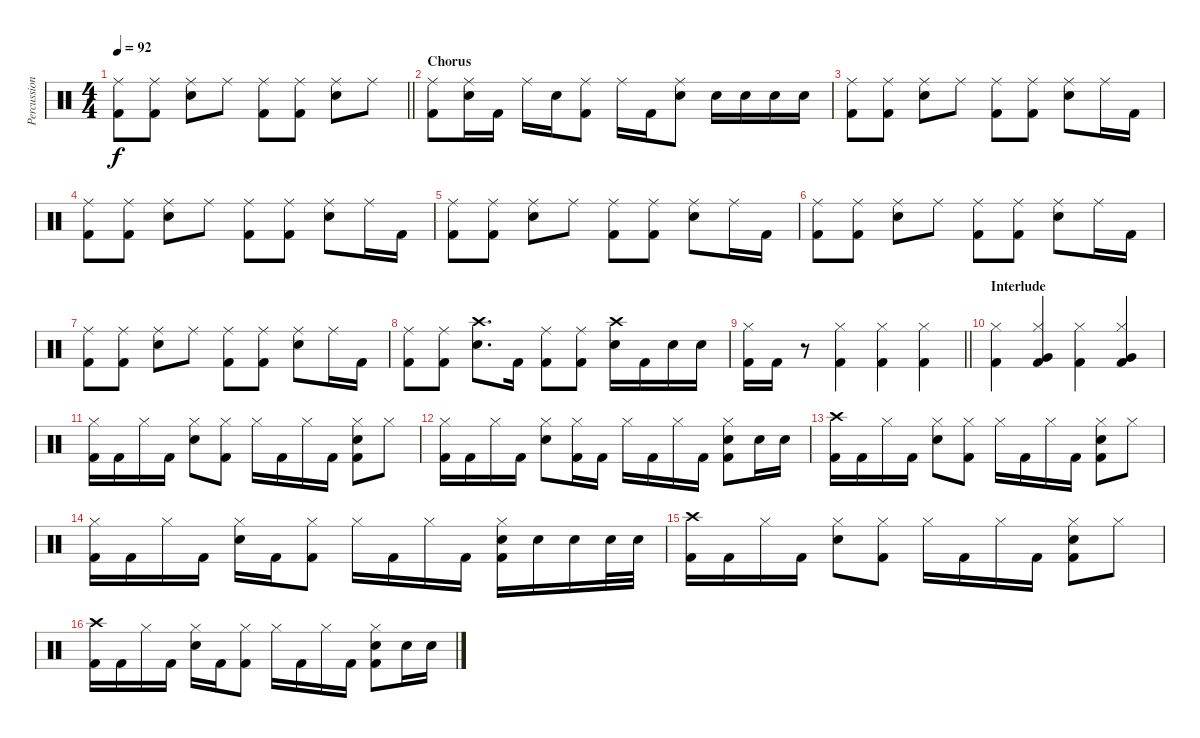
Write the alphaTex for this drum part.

\track ("Percussion" "Percussion") {instrument percussion}
\staff {score}
\articulation defaults
\ts (4 4)
\tempo 92
\clef neutral
\barLineRight lightlight
\ks c
("Ride (middle)" "Kick (hit) 2").8{dy f} ("Ride (middle)" "Kick (hit) 2").8 ("Ride (middle)" "Electric Snare (hit)").8 "Ride (middle)".8 ("Ride (middle)" "Kick (hit) 2").8 ("Ride (middle)" "Kick (hit) 2").8 ("Ride (middle)" "Electric Snare (hit)").8 "Ride (middle)".8 |
\section ("" "Chorus")
("Ride (middle)" "Kick (hit) 2").8 ("Ride (middle)" "Electric Snare (hit)").16 "Kick (hit) 2".16 "Ride (middle)".16 "Electric Snare (hit)".16 ("Ride (middle)" "Kick (hit) 2").8 "Ride (middle)".16 "Kick (hit) 2".16 ("Ride (middle)" "Electric Snare (hit)").8 "Electric Snare (hit)".16 "Electric Snare (hit)".16 "Electric Snare (hit)".16 "Electric Snare (hit)".16 |
("Ride (middle)" "Kick (hit) 2").8 ("Ride (middle)" "Kick (hit) 2").8 ("Ride (middle)" "Electric Snare (hit)").8 "Ride (middle)".8 ("Ride (middle)" "Kick (hit) 2").8 ("Ride (middle)" "Kick (hit) 2").8 ("Ride (middle)" "Electric Snare (hit)").8 "Ride (middle)".16 "Kick (hit) 2".16 |
("Ride (middle)" "Kick (hit) 2").8 ("Ride (middle)" "Kick (hit) 2").8 ("Ride (middle)" "Electric Snare (hit)").8 "Ride (middle)".8 ("Ride (middle)" "Kick (hit) 2").8 ("Ride (middle)" "Kick (hit) 2").8 ("Ride (middle)" "Electric Snare (hit)").8 "Ride (middle)".16 "Kick (hit) 2".16 |
("Ride (middle)" "Kick (hit) 2").8 ("Ride (middle)" "Kick (hit) 2").8 ("Ride (middle)" "Electric Snare (hit)").8 "Ride (middle)".8 ("Ride (middle)" "Kick (hit) 2").8 ("Ride (middle)" "Kick (hit) 2").8 ("Ride (middle)" "Electric Snare (hit)").8 "Ride (middle)".16 "Kick (hit) 2".16 |
("Ride (middle)" "Kick (hit) 2").8 ("Ride (middle)" "Kick (hit) 2").8 ("Ride (middle)" "Electric Snare (hit)").8 "Ride (middle)".8 ("Ride (middle)" "Kick (hit) 2").8 ("Ride (middle)" "Kick (hit) 2").8 ("Ride (middle)" "Electric Snare (hit)").8 "Ride (middle)".16 "Kick (hit) 2".16 |
("Ride (middle)" "Kick (hit) 2").8 ("Ride (middle)" "Kick (hit) 2").8 ("Ride (middle)" "Electric Snare (hit)").8 "Ride (middle)".8 ("Ride (middle)" "Kick (hit) 2").8 ("Ride (middle)" "Kick (hit) 2").8 ("Ride (middle)" "Electric Snare (hit)").8 "Ride (middle)".16 "Kick (hit) 2".16 |
("Ride (middle)" "Kick (hit) 2").8 ("Ride (middle)" "Kick (hit) 2").8 ("Crash high (hit)" "Electric Snare (hit)").8{d} "Kick (hit) 2".16 ("Ride (middle)" "Kick (hit) 2").8 ("Ride (middle)" "Kick (hit) 2").8 ("Crash high (hit)" "Electric Snare (hit)").16 "Kick (hit) 2".16 "Electric Snare (hit)".16 "Electric Snare (hit)".16 |
\barLineRight lightlight
("Hi-Hat (closed)" "Kick (hit) 2").16 "Kick (hit) 2".16 r.8 ("Hi-Hat (closed)" "Kick (hit) 2").4 ("Hi-Hat (closed)" "Kick (hit) 2").4 ("Hi-Hat (closed)" "Kick (hit) 2").4 |
\section ("" "Interlude")
("Hi-Hat (closed)" "Kick (hit) 2").4 ("Hi-Hat (closed)" "Very Low Tom (hit)" "Kick (hit) 2").4 ("Hi-Hat (closed)" "Kick (hit) 2").4 ("Hi-Hat (closed)" "Very Low Tom (hit)" "Kick (hit) 2").4 |
("Hi-Hat (closed)" "Kick (hit) 2").16 "Kick (hit) 2".16 "Hi-Hat (closed)".16 "Kick (hit) 2".16 ("Hi-Hat (closed)" "Electric Snare (hit)").8 ("Hi-Hat (closed)" "Kick (hit) 2").8 "Hi-Hat (closed)".16 "Kick (hit) 2".16 "Hi-Hat (closed)".16 "Kick (hit) 2".16 ("Hi-Hat (closed)" "Electric Snare (hit)" "Kick (hit) 2").8 "Hi-Hat (closed)".8 |
("Hi-Hat (closed)" "Kick (hit) 2").16 "Kick (hit) 2".16 "Hi-Hat (closed)".16 "Kick (hit) 2".16 ("Hi-Hat (closed)" "Electric Snare (hit)").8 ("Hi-Hat (closed)" "Kick (hit) 2").16 "Kick (hit) 2".16 "Hi-Hat (closed)".16 "Kick (hit) 2".16 "Hi-Hat (closed)".16 "Kick (hit) 2".16 ("Hi-Hat (closed)" "Electric Snare (hit)" "Kick (hit) 2").8 "Electric Snare (hit)".16 "Electric Snare (hit)".16 |
("Crash high (hit)" "Kick (hit) 2").16 "Kick (hit) 2".16 "Hi-Hat (closed)".16 "Kick (hit) 2".16 ("Hi-Hat (closed)" "Electric Snare (hit)").8 ("Hi-Hat (closed)" "Kick (hit) 2").8 "Hi-Hat (closed)".16 "Kick (hit) 2".16 "Hi-Hat (closed)".16 "Kick (hit) 2".16 ("Hi-Hat (closed)" "Electric Snare (hit)" "Kick (hit) 2").8 "Hi-Hat (closed)".8 |
("Hi-Hat (closed)" "Kick (hit) 2").16 "Kick (hit) 2".16 "Hi-Hat (closed)".16 "Kick (hit) 2".16 ("Hi-Hat (closed)" "Electric Snare (hit)").16 "Kick (hit) 2".16 ("Hi-Hat (closed)" "Kick (hit) 2").8 "Hi-Hat (closed)".16 "Kick (hit) 2".16 "Hi-Hat (closed)".16 "Kick (hit) 2".16 ("Hi-Hat (closed)" "Electric Snare (hit)" "Kick (hit) 2").16 "Electric Snare (hit)".16 "Electric Snare (hit)".16 "Electric Snare (hit)".32 "Electric Snare (hit)".32 |
("Crash high (hit)" "Kick (hit) 2").16 "Kick (hit) 2".16 "Hi-Hat (closed)".16 "Kick (hit) 2".16 ("Hi-Hat (closed)" "Electric Snare (hit)").8 ("Hi-Hat (closed)" "Kick (hit) 2").8 "Hi-Hat (closed)".16 "Kick (hit) 2".16 "Hi-Hat (closed)".16 "Kick (hit) 2".16 ("Hi-Hat (closed)" "Electric Snare (hit)" "Kick (hit) 2").8 "Hi-Hat (closed)".8 |
("Crash high (hit)" "Kick (hit) 2").16 "Kick (hit) 2".16 "Hi-Hat (closed)".16 "Kick (hit) 2".16 ("Hi-Hat (closed)" "Electric Snare (hit)").16 "Kick (hit) 2".16 ("Hi-Hat (closed)" "Kick (hit) 2").8 "Hi-Hat (closed)".16 "Kick (hit) 2".16 "Hi-Hat (closed)".16 "Kick (hit) 2".16 ("Hi-Hat (closed)" "Electric Snare (hit)" "Kick (hit) 2").8 "Electric Snare (hit)".16 "Electric Snare (hit)".16
